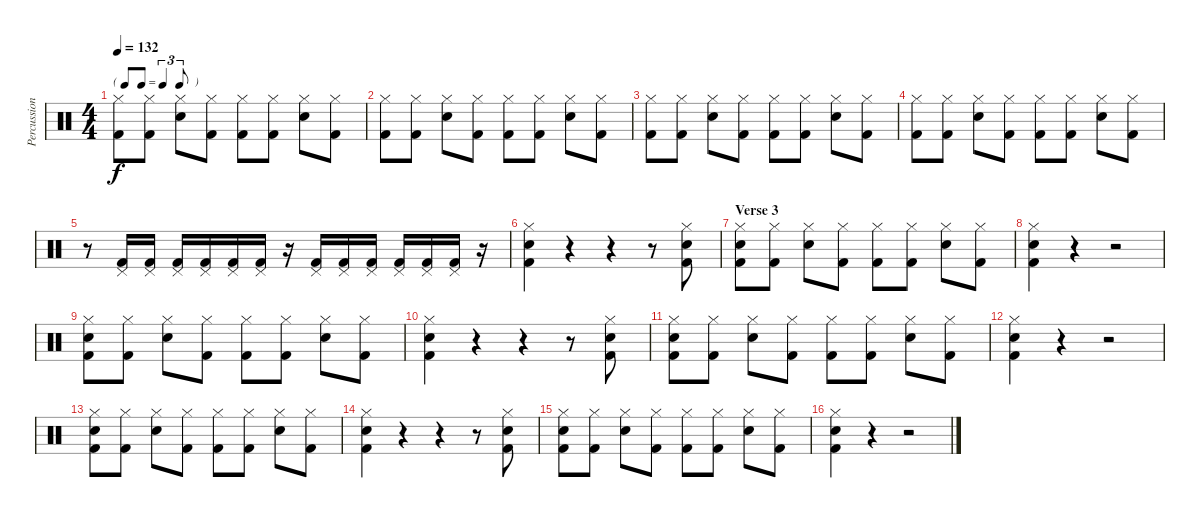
\track ("Percussion" "Percussion") {instrument percussion}
\staff {score}
\articulation defaults
\ts (4 4)
\tf triplet8th
\tempo 132
\clef neutral
\ks c
("Hi-Hat (closed)" "Kick (hit) 2").8{dy f} ("Hi-Hat (closed)" "Kick (hit) 2").8 ("Hi-Hat (closed)" "Electric Snare (hit)").8 ("Hi-Hat (closed)" "Kick (hit) 2").8 ("Hi-Hat (closed)" "Kick (hit) 2").8 ("Hi-Hat (closed)" "Kick (hit) 2").8 ("Hi-Hat (closed)" "Electric Snare (hit)").8 ("Hi-Hat (closed)" "Kick (hit) 2").8 |
("Hi-Hat (closed)" "Kick (hit) 2").8 ("Hi-Hat (closed)" "Kick (hit) 2").8 ("Hi-Hat (closed)" "Electric Snare (hit)").8 ("Hi-Hat (closed)" "Kick (hit) 2").8 ("Hi-Hat (closed)" "Kick (hit) 2").8 ("Hi-Hat (closed)" "Kick (hit) 2").8 ("Hi-Hat (closed)" "Electric Snare (hit)").8 ("Hi-Hat (closed)" "Kick (hit) 2").8 |
("Hi-Hat (closed)" "Kick (hit) 2").8 ("Hi-Hat (closed)" "Kick (hit) 2").8 ("Hi-Hat (closed)" "Electric Snare (hit)").8 ("Hi-Hat (closed)" "Kick (hit) 2").8 ("Hi-Hat (closed)" "Kick (hit) 2").8 ("Hi-Hat (closed)" "Kick (hit) 2").8 ("Hi-Hat (closed)" "Electric Snare (hit)").8 ("Hi-Hat (closed)" "Kick (hit) 2").8 |
("Hi-Hat (closed)" "Kick (hit) 2").8 ("Hi-Hat (closed)" "Kick (hit) 2").8 ("Hi-Hat (closed)" "Electric Snare (hit)").8 ("Hi-Hat (closed)" "Kick (hit) 2").8 ("Hi-Hat (closed)" "Kick (hit) 2").8 ("Hi-Hat (closed)" "Kick (hit) 2").8 ("Hi-Hat (closed)" "Electric Snare (hit)").8 ("Hi-Hat (closed)" "Kick (hit) 2").8 |
r.8 ("Pedal Hi-Hat (hit)" "Kick (hit) 2").16 ("Pedal Hi-Hat (hit)" "Kick (hit) 2").16 ("Pedal Hi-Hat (hit)" "Kick (hit) 2").16 ("Pedal Hi-Hat (hit)" "Kick (hit) 2").16 ("Pedal Hi-Hat (hit)" "Kick (hit) 2").16 ("Pedal Hi-Hat (hit)" "Kick (hit) 2").16 r.16 ("Pedal Hi-Hat (hit)" "Kick (hit) 2").16 ("Pedal Hi-Hat (hit)" "Kick (hit) 2").16 ("Pedal Hi-Hat (hit)" "Kick (hit) 2").16 ("Pedal Hi-Hat (hit)" "Kick (hit) 2").16 ("Pedal Hi-Hat (hit)" "Kick (hit) 2").16 ("Pedal Hi-Hat (hit)" "Kick (hit) 2").16 r.16 |
("Hi-Hat (closed)" "Electric Snare (hit)" "Kick (hit) 2").4 r.4 r.4 r.8 ("Hi-Hat (closed)" "Electric Snare (hit)" "Kick (hit) 2").8 |
\section ("" "Verse 3")
("Hi-Hat (closed)" "Electric Snare (hit)" "Kick (hit) 2").8 ("Hi-Hat (closed)" "Kick (hit) 2").8 ("Hi-Hat (closed)" "Electric Snare (hit)").8 ("Hi-Hat (closed)" "Kick (hit) 2").8 ("Hi-Hat (closed)" "Kick (hit) 2").8 ("Hi-Hat (closed)" "Kick (hit) 2").8 ("Hi-Hat (closed)" "Electric Snare (hit)").8 ("Hi-Hat (closed)" "Kick (hit) 2").8 |
("Hi-Hat (closed)" "Electric Snare (hit)" "Kick (hit) 2").4 r.4 r.2 |
("Hi-Hat (closed)" "Electric Snare (hit)" "Kick (hit) 2").8 ("Hi-Hat (closed)" "Kick (hit) 2").8 ("Hi-Hat (closed)" "Electric Snare (hit)").8 ("Hi-Hat (closed)" "Kick (hit) 2").8 ("Hi-Hat (closed)" "Kick (hit) 2").8 ("Hi-Hat (closed)" "Kick (hit) 2").8 ("Hi-Hat (closed)" "Electric Snare (hit)").8 ("Hi-Hat (closed)" "Kick (hit) 2").8 |
("Hi-Hat (closed)" "Electric Snare (hit)" "Kick (hit) 2").4 r.4 r.4 r.8 ("Hi-Hat (closed)" "Electric Snare (hit)" "Kick (hit) 2").8 |
("Hi-Hat (closed)" "Electric Snare (hit)" "Kick (hit) 2").8 ("Hi-Hat (closed)" "Kick (hit) 2").8 ("Hi-Hat (closed)" "Electric Snare (hit)").8 ("Hi-Hat (closed)" "Kick (hit) 2").8 ("Hi-Hat (closed)" "Kick (hit) 2").8 ("Hi-Hat (closed)" "Kick (hit) 2").8 ("Hi-Hat (closed)" "Electric Snare (hit)").8 ("Hi-Hat (closed)" "Kick (hit) 2").8 |
("Hi-Hat (closed)" "Electric Snare (hit)" "Kick (hit) 2").4 r.4 r.2 |
("Hi-Hat (closed)" "Electric Snare (hit)" "Kick (hit) 2").8 ("Hi-Hat (closed)" "Kick (hit) 2").8 ("Hi-Hat (closed)" "Electric Snare (hit)").8 ("Hi-Hat (closed)" "Kick (hit) 2").8 ("Hi-Hat (closed)" "Kick (hit) 2").8 ("Hi-Hat (closed)" "Kick (hit) 2").8 ("Hi-Hat (closed)" "Electric Snare (hit)").8 ("Hi-Hat (closed)" "Kick (hit) 2").8 |
("Hi-Hat (closed)" "Electric Snare (hit)" "Kick (hit) 2").4 r.4 r.4 r.8 ("Hi-Hat (closed)" "Electric Snare (hit)" "Kick (hit) 2").8 |
("Hi-Hat (closed)" "Electric Snare (hit)" "Kick (hit) 2").8 ("Hi-Hat (closed)" "Kick (hit) 2").8 ("Hi-Hat (closed)" "Electric Snare (hit)").8 ("Hi-Hat (closed)" "Kick (hit) 2").8 ("Hi-Hat (closed)" "Kick (hit) 2").8 ("Hi-Hat (closed)" "Kick (hit) 2").8 ("Hi-Hat (closed)" "Electric Snare (hit)").8 ("Hi-Hat (closed)" "Kick (hit) 2").8 |
("Hi-Hat (closed)" "Electric Snare (hit)" "Kick (hit) 2").4 r.4 r.2
